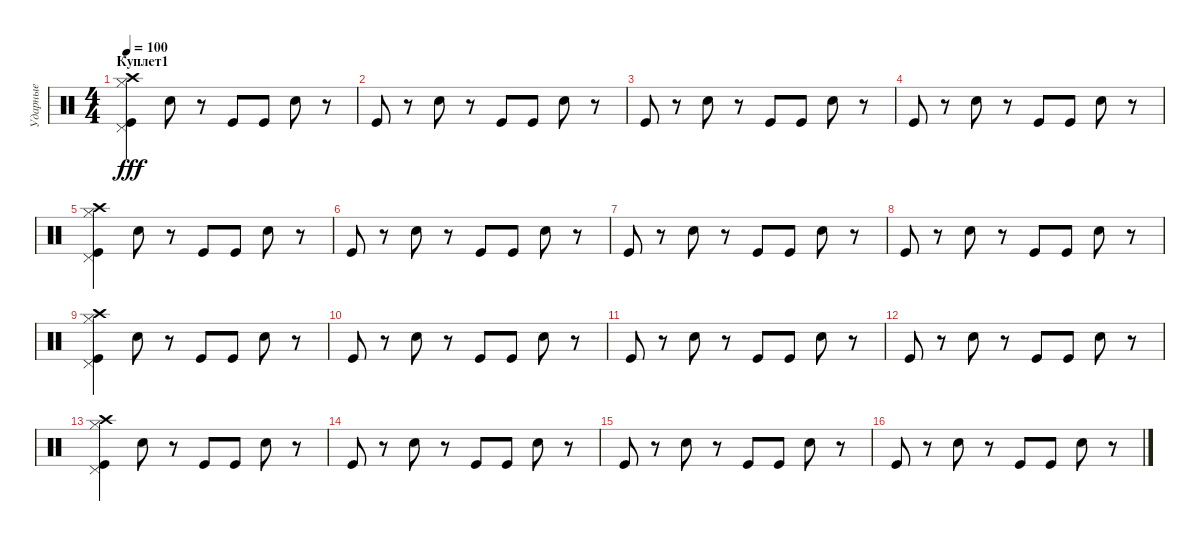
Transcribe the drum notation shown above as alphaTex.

\track ("Ударные" "Ударные") {instrument percussion}
\staff {score}
\articulation defaults
\ts (4 4)
\section ("" "Куплет1")
\tempo 100
\clef neutral
\ks c
("Crash high (hit)" "Hi-Hat (closed)" "Pedal Hi-Hat (hit)" "Kick (hit)").4{dy fff} "Electric Snare (hit)".8 r.8 "Kick (hit)".8 "Kick (hit)".8 "Electric Snare (hit)".8 r.8 |
"Kick (hit)".8 r.8 "Electric Snare (hit)".8 r.8 "Kick (hit)".8 "Kick (hit)".8 "Electric Snare (hit)".8 r.8 |
"Kick (hit)".8 r.8 "Electric Snare (hit)".8 r.8 "Kick (hit)".8 "Kick (hit)".8 "Electric Snare (hit)".8 r.8 |
"Kick (hit)".8 r.8 "Electric Snare (hit)".8 r.8 "Kick (hit)".8 "Kick (hit)".8 "Electric Snare (hit)".8 r.8 |
("Crash high (hit)" "Hi-Hat (closed)" "Pedal Hi-Hat (hit)" "Kick (hit)").4 "Electric Snare (hit)".8 r.8 "Kick (hit)".8 "Kick (hit)".8 "Electric Snare (hit)".8 r.8 |
"Kick (hit)".8 r.8 "Electric Snare (hit)".8 r.8 "Kick (hit)".8 "Kick (hit)".8 "Electric Snare (hit)".8 r.8 |
"Kick (hit)".8 r.8 "Electric Snare (hit)".8 r.8 "Kick (hit)".8 "Kick (hit)".8 "Electric Snare (hit)".8 r.8 |
"Kick (hit)".8 r.8 "Electric Snare (hit)".8 r.8 "Kick (hit)".8 "Kick (hit)".8 "Electric Snare (hit)".8 r.8 |
("Crash high (hit)" "Hi-Hat (closed)" "Pedal Hi-Hat (hit)" "Kick (hit)").4 "Electric Snare (hit)".8 r.8 "Kick (hit)".8 "Kick (hit)".8 "Electric Snare (hit)".8 r.8 |
"Kick (hit)".8 r.8 "Electric Snare (hit)".8 r.8 "Kick (hit)".8 "Kick (hit)".8 "Electric Snare (hit)".8 r.8 |
"Kick (hit)".8 r.8 "Electric Snare (hit)".8 r.8 "Kick (hit)".8 "Kick (hit)".8 "Electric Snare (hit)".8 r.8 |
"Kick (hit)".8 r.8 "Electric Snare (hit)".8 r.8 "Kick (hit)".8 "Kick (hit)".8 "Electric Snare (hit)".8 r.8 |
("Crash high (hit)" "Hi-Hat (closed)" "Pedal Hi-Hat (hit)" "Kick (hit)").4 "Electric Snare (hit)".8 r.8 "Kick (hit)".8 "Kick (hit)".8 "Electric Snare (hit)".8 r.8 |
"Kick (hit)".8 r.8 "Electric Snare (hit)".8 r.8 "Kick (hit)".8 "Kick (hit)".8 "Electric Snare (hit)".8 r.8 |
"Kick (hit)".8 r.8 "Electric Snare (hit)".8 r.8 "Kick (hit)".8 "Kick (hit)".8 "Electric Snare (hit)".8 r.8 |
"Kick (hit)".8 r.8 "Electric Snare (hit)".8 r.8 "Kick (hit)".8 "Kick (hit)".8 "Electric Snare (hit)".8 r.8
